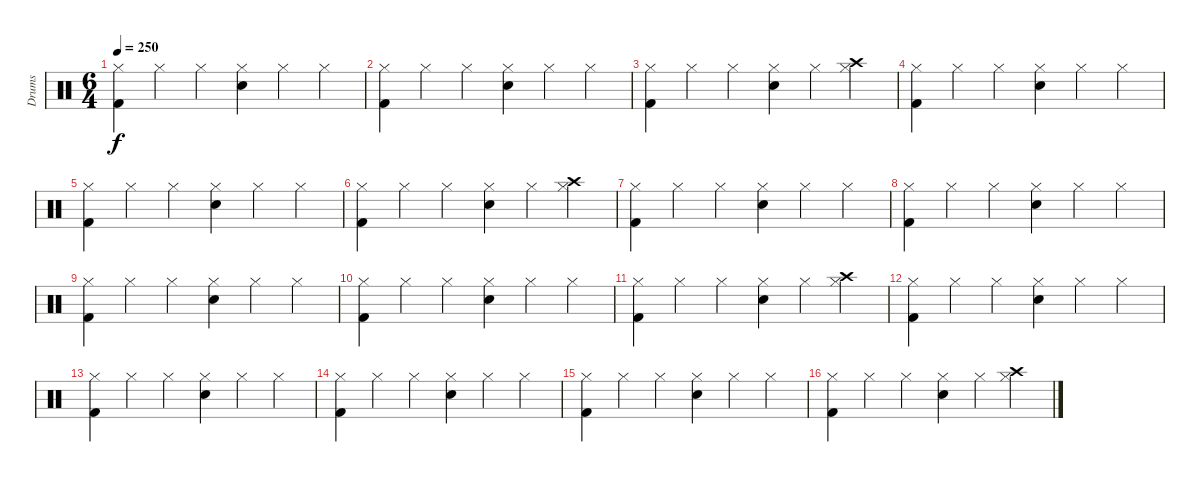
\track ("Drums" "Drums") {instrument percussion}
\staff {score}
\articulation defaults
\ts (6 4)
\tempo 250
\clef neutral
\ks c
("Hi-Hat (closed)" "Kick (hit) 2").4{dy f} "Hi-Hat (closed)".4 "Hi-Hat (closed)".4 ("Hi-Hat (closed)" "Snare (hit) 2").4 "Hi-Hat (closed)".4 "Hi-Hat (closed)".4 |
("Hi-Hat (closed)" "Kick (hit) 2").4 "Hi-Hat (closed)".4 "Hi-Hat (closed)".4 ("Hi-Hat (closed)" "Snare (hit) 2").4 "Hi-Hat (closed)".4 "Hi-Hat (closed)".4 |
("Hi-Hat (closed)" "Kick (hit) 2").4 "Hi-Hat (closed)".4 "Hi-Hat (closed)".4 ("Hi-Hat (closed)" "Snare (hit) 2").4 "Hi-Hat (closed)".4 ("Hi-Hat (closed)" "Crash high (hit)").4 |
("Hi-Hat (closed)" "Kick (hit) 2").4 "Hi-Hat (closed)".4 "Hi-Hat (closed)".4 ("Hi-Hat (closed)" "Snare (hit) 2").4 "Hi-Hat (closed)".4 "Hi-Hat (closed)".4 |
("Hi-Hat (closed)" "Kick (hit) 2").4 "Hi-Hat (closed)".4 "Hi-Hat (closed)".4 ("Hi-Hat (closed)" "Snare (hit) 2").4 "Hi-Hat (closed)".4 "Hi-Hat (closed)".4 |
("Hi-Hat (closed)" "Kick (hit) 2").4 "Hi-Hat (closed)".4 "Hi-Hat (closed)".4 ("Hi-Hat (closed)" "Snare (hit) 2").4 "Hi-Hat (closed)".4 ("Hi-Hat (closed)" "Crash high (hit)").4 |
("Hi-Hat (closed)" "Kick (hit) 2").4 "Hi-Hat (closed)".4 "Hi-Hat (closed)".4 ("Hi-Hat (closed)" "Snare (hit) 2").4 "Hi-Hat (closed)".4 "Hi-Hat (closed)".4 |
("Hi-Hat (closed)" "Kick (hit) 2").4 "Hi-Hat (closed)".4 "Hi-Hat (closed)".4 ("Hi-Hat (closed)" "Snare (hit) 2").4 "Hi-Hat (closed)".4 "Hi-Hat (closed)".4 |
("Hi-Hat (closed)" "Kick (hit) 2").4 "Hi-Hat (closed)".4 "Hi-Hat (closed)".4 ("Hi-Hat (closed)" "Snare (hit) 2").4 "Hi-Hat (closed)".4 "Hi-Hat (closed)".4 |
("Hi-Hat (closed)" "Kick (hit) 2").4 "Hi-Hat (closed)".4 "Hi-Hat (closed)".4 ("Hi-Hat (closed)" "Snare (hit) 2").4 "Hi-Hat (closed)".4 "Hi-Hat (closed)".4 |
("Hi-Hat (closed)" "Kick (hit) 2").4 "Hi-Hat (closed)".4 "Hi-Hat (closed)".4 ("Hi-Hat (closed)" "Snare (hit) 2").4 "Hi-Hat (closed)".4 ("Hi-Hat (closed)" "Crash high (hit)").4 |
("Hi-Hat (closed)" "Kick (hit) 2").4 "Hi-Hat (closed)".4 "Hi-Hat (closed)".4 ("Hi-Hat (closed)" "Snare (hit) 2").4 "Hi-Hat (closed)".4 "Hi-Hat (closed)".4 |
("Hi-Hat (closed)" "Kick (hit) 2").4 "Hi-Hat (closed)".4 "Hi-Hat (closed)".4 ("Hi-Hat (closed)" "Snare (hit) 2").4 "Hi-Hat (closed)".4 "Hi-Hat (closed)".4 |
("Hi-Hat (closed)" "Kick (hit) 2").4 "Hi-Hat (closed)".4 "Hi-Hat (closed)".4 ("Hi-Hat (closed)" "Snare (hit) 2").4 "Hi-Hat (closed)".4 "Hi-Hat (closed)".4 |
("Hi-Hat (closed)" "Kick (hit) 2").4 "Hi-Hat (closed)".4 "Hi-Hat (closed)".4 ("Hi-Hat (closed)" "Snare (hit) 2").4 "Hi-Hat (closed)".4 "Hi-Hat (closed)".4 |
("Hi-Hat (closed)" "Kick (hit) 2").4 "Hi-Hat (closed)".4 "Hi-Hat (closed)".4 ("Hi-Hat (closed)" "Snare (hit) 2").4 "Hi-Hat (closed)".4 ("Hi-Hat (closed)" "Crash high (hit)").4
